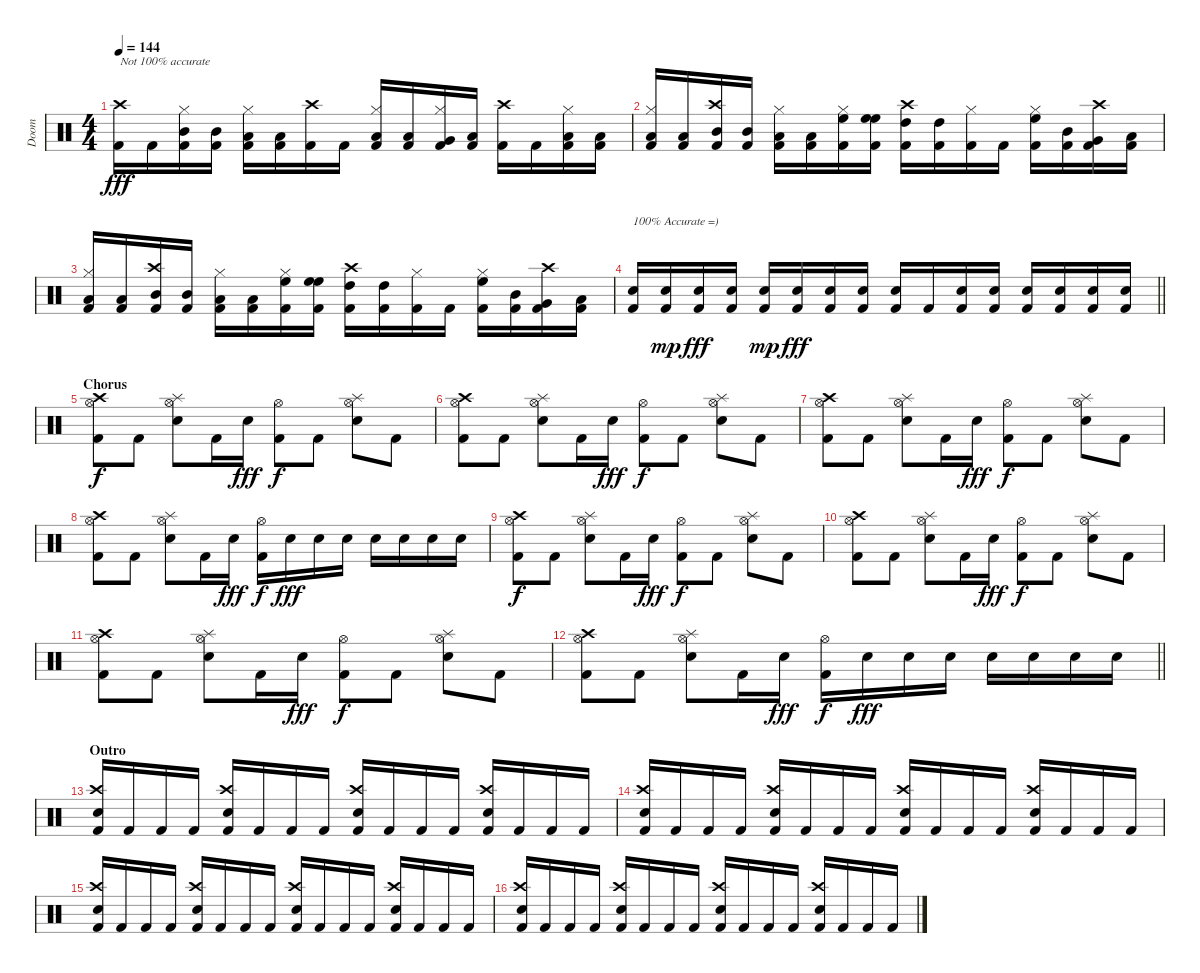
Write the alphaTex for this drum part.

\track ("Doom" "Doom") {instrument percussion}
\staff {score}
\articulation defaults
\ts (4 4)
\tempo 144
\clef neutral
\ks c
("Kick (hit) 2" "Crash high (hit)").16{txt "Not 100% accurate" dy fff} "Kick (hit) 2".16 ("Hi-Hat (closed)" "Kick (hit) 2" "Mid Tom (hit)").16 ("Mid Tom (hit)" "Kick (hit) 2").16 ("Kick (hit) 2" "Hi-Hat (closed)" "Low Tom (hit)").16 ("Kick (hit) 2" "Low Tom (hit)").16 ("Crash high (hit)" "Kick (hit) 2").16 "Kick (hit) 2".16 ("Kick (hit) 2" "Hi-Hat (closed)" "Low Tom (hit)").16 ("Kick (hit) 2" "Low Tom (hit)").16 ("Hi-Hat (closed)" "Kick (hit) 2" "Very Low Tom (hit)").16 ("Low Floor Tom (hit)" "Kick (hit) 2").16 ("Kick (hit) 2" "Crash high (hit)").16 "Kick (hit) 2".16 ("Hi-Hat (closed)" "Kick (hit) 2" "Low Floor Tom (hit)").16 ("Low Floor Tom (hit)" "Kick (hit) 2").16 |
("Kick (hit) 2" "Hi-Hat (closed)" "Low Floor Tom (hit)").16 ("Kick (hit) 2" "Low Floor Tom (hit)").16 ("Crash high (hit)" "Kick (hit) 2" "Mid Tom (hit)").16 ("Mid Tom (hit)" "Kick (hit) 2").16 ("Kick (hit) 2" "Hi-Hat (closed)" "Low Tom (hit)").16 ("Kick (hit) 2" "Low Tom (hit)").16 ("Hi-Hat (closed)" "Kick (hit) 2" "High Floor Tom (hit)").16 ("High Floor Tom (hit)" "High Floor Tom (hit)" "Kick (hit) 2").16 ("Kick (hit) 2" "Crash high (hit)" "High Tom (hit)").16 ("Kick (hit) 2" "High Tom (hit)").16 ("Hi-Hat (closed)" "Kick (hit) 2").16 "Kick (hit) 2".16 ("Kick (hit) 2" "Hi-Hat (closed)" "High Floor Tom (hit)").16 ("Kick (hit) 2" "Mid Tom (hit)").16 ("Crash high (hit)" "Kick (hit) 2" "Very Low Tom (hit)").16 ("Low Floor Tom (hit)" "Kick (hit) 2").16 |
("Kick (hit) 2" "Hi-Hat (closed)" "Low Floor Tom (hit)").16 ("Kick (hit) 2" "Low Floor Tom (hit)").16 ("Crash high (hit)" "Kick (hit) 2" "Mid Tom (hit)").16 ("Mid Tom (hit)" "Kick (hit) 2").16 ("Kick (hit) 2" "Hi-Hat (closed)" "Low Tom (hit)").16 ("Kick (hit) 2" "Low Tom (hit)").16 ("Hi-Hat (closed)" "Kick (hit) 2" "High Floor Tom (hit)").16 ("High Floor Tom (hit)" "High Floor Tom (hit)" "Kick (hit) 2").16 ("Kick (hit) 2" "Crash high (hit)" "High Tom (hit)").16 ("Kick (hit) 2" "High Tom (hit)").16 ("Hi-Hat (closed)" "Kick (hit) 2").16 "Kick (hit) 2".16 ("Kick (hit) 2" "Hi-Hat (closed)" "High Floor Tom (hit)").16 ("Kick (hit) 2" "Mid Tom (hit)").16 ("Crash high (hit)" "Kick (hit) 2" "Very Low Tom (hit)").16 ("Low Floor Tom (hit)" "Kick (hit) 2").16 |
\barLineRight lightlight
("Kick (hit) 2" "Electric Snare (hit)").16{txt "100% Accurate =)"} ("Kick (hit) 2" "Electric Snare (hit)").16{dy mp} ("Electric Snare (hit)" "Kick (hit) 2").16{dy fff} ("Electric Snare (hit)" "Kick (hit) 2").16 ("Kick (hit) 2" "Electric Snare (hit)").16{dy mp} ("Kick (hit) 2" "Electric Snare (hit)").16{dy fff} ("Electric Snare (hit)" "Kick (hit) 2").16 ("Electric Snare (hit)" "Kick (hit) 2").16 ("Kick (hit) 2" "Electric Snare (hit)").16 "Kick (hit) 2".16 ("Electric Snare (hit)" "Kick (hit) 2").16 ("Electric Snare (hit)" "Kick (hit) 2").16 ("Kick (hit) 2" "Electric Snare (hit)").16 ("Kick (hit) 2" "Electric Snare (hit)").16 ("Electric Snare (hit)" "Kick (hit) 2").16 ("Electric Snare (hit)" "Kick (hit) 2").16 |
\section ("" "Chorus")
("Kick (hit) 2" "Hi-Hat (open)" "Crash high (hit)").8{dy f} "Kick (hit) 2".8 ("Snare (hit) 2" "Hi-Hat (open)" "Splash (hit)").8 "Kick (hit) 2".16 "Snare (hit) 2".16{dy fff} ("Kick (hit) 2" "Hi-Hat (open)").8{dy f} "Kick (hit) 2".8 ("Snare (hit) 2" "Hi-Hat (open)" "Splash (hit)").8 "Kick (hit) 2".8 |
("Kick (hit) 2" "Hi-Hat (open)" "Crash high (hit)").8 "Kick (hit) 2".8 ("Snare (hit) 2" "Hi-Hat (open)" "Splash (hit)").8 "Kick (hit) 2".16 "Snare (hit) 2".16{dy fff} ("Kick (hit) 2" "Hi-Hat (open)").8{dy f} "Kick (hit) 2".8 ("Snare (hit) 2" "Hi-Hat (open)" "Splash (hit)").8 "Kick (hit) 2".8 |
("Kick (hit) 2" "Hi-Hat (open)" "Crash high (hit)").8 "Kick (hit) 2".8 ("Snare (hit) 2" "Hi-Hat (open)" "Splash (hit)").8 "Kick (hit) 2".16 "Snare (hit) 2".16{dy fff} ("Kick (hit) 2" "Hi-Hat (open)").8{dy f} "Kick (hit) 2".8 ("Snare (hit) 2" "Hi-Hat (open)" "Splash (hit)").8 "Kick (hit) 2".8 |
("Kick (hit) 2" "Hi-Hat (open)" "Crash high (hit)").8 "Kick (hit) 2".8 ("Snare (hit) 2" "Hi-Hat (open)" "Splash (hit)").8 "Kick (hit) 2".16 "Snare (hit) 2".16{dy fff} ("Kick (hit) 2" "Hi-Hat (open)").16{dy f} "Snare (hit) 2".16{dy fff} "Snare (hit) 2".16 "Snare (hit) 2".16 "Snare (hit) 2".16 "Snare (hit) 2".16 "Snare (hit) 2".16 "Snare (hit) 2".16 |
("Kick (hit) 2" "Hi-Hat (open)" "Crash high (hit)").8{dy f} "Kick (hit) 2".8 ("Snare (hit) 2" "Hi-Hat (open)" "Splash (hit)").8 "Kick (hit) 2".16 "Snare (hit) 2".16{dy fff} ("Kick (hit) 2" "Hi-Hat (open)").8{dy f} "Kick (hit) 2".8 ("Snare (hit) 2" "Hi-Hat (open)" "Splash (hit)").8 "Kick (hit) 2".8 |
("Kick (hit) 2" "Hi-Hat (open)" "Crash high (hit)").8 "Kick (hit) 2".8 ("Snare (hit) 2" "Hi-Hat (open)" "Splash (hit)").8 "Kick (hit) 2".16 "Snare (hit) 2".16{dy fff} ("Kick (hit) 2" "Hi-Hat (open)").8{dy f} "Kick (hit) 2".8 ("Snare (hit) 2" "Hi-Hat (open)" "Splash (hit)").8 "Kick (hit) 2".8 |
("Kick (hit) 2" "Hi-Hat (open)" "Crash high (hit)").8 "Kick (hit) 2".8 ("Snare (hit) 2" "Hi-Hat (open)" "Splash (hit)").8 "Kick (hit) 2".16 "Snare (hit) 2".16{dy fff} ("Kick (hit) 2" "Hi-Hat (open)").8{dy f} "Kick (hit) 2".8 ("Snare (hit) 2" "Hi-Hat (open)" "Splash (hit)").8 "Kick (hit) 2".8 |
\barLineRight lightlight
("Kick (hit) 2" "Hi-Hat (open)" "Crash high (hit)").8 "Kick (hit) 2".8 ("Snare (hit) 2" "Hi-Hat (open)" "Splash (hit)").8 "Kick (hit) 2".16 "Snare (hit) 2".16{dy fff} ("Kick (hit) 2" "Hi-Hat (open)").16{dy f} "Snare (hit) 2".16{dy fff} "Snare (hit) 2".16 "Snare (hit) 2".16 "Snare (hit) 2".16 "Snare (hit) 2".16 "Snare (hit) 2".16 "Snare (hit) 2".16 |
\section ("" "Outro")
("Crash high (hit)" "Snare (hit) 2" "Kick (hit) 2").16 "Kick (hit) 2".16 "Kick (hit) 2".16 "Kick (hit) 2".16 ("Crash high (hit)" "Snare (hit) 2" "Kick (hit) 2").16 "Kick (hit) 2".16 "Kick (hit) 2".16 "Kick (hit) 2".16 ("Crash high (hit)" "Snare (hit) 2" "Kick (hit) 2").16 "Kick (hit) 2".16 "Kick (hit) 2".16 "Kick (hit) 2".16 ("Crash high (hit)" "Snare (hit) 2" "Kick (hit) 2").16 "Kick (hit) 2".16 "Kick (hit) 2".16 "Kick (hit) 2".16 |
("Crash high (hit)" "Snare (hit) 2" "Kick (hit) 2").16 "Kick (hit) 2".16 "Kick (hit) 2".16 "Kick (hit) 2".16 ("Crash high (hit)" "Snare (hit) 2" "Kick (hit) 2").16 "Kick (hit) 2".16 "Kick (hit) 2".16 "Kick (hit) 2".16 ("Crash high (hit)" "Snare (hit) 2" "Kick (hit) 2").16 "Kick (hit) 2".16 "Kick (hit) 2".16 "Kick (hit) 2".16 ("Crash high (hit)" "Snare (hit) 2" "Kick (hit) 2").16 "Kick (hit) 2".16 "Kick (hit) 2".16 "Kick (hit) 2".16 |
("Crash high (hit)" "Snare (hit) 2" "Kick (hit) 2").16 "Kick (hit) 2".16 "Kick (hit) 2".16 "Kick (hit) 2".16 ("Crash high (hit)" "Snare (hit) 2" "Kick (hit) 2").16 "Kick (hit) 2".16 "Kick (hit) 2".16 "Kick (hit) 2".16 ("Crash high (hit)" "Snare (hit) 2" "Kick (hit) 2").16 "Kick (hit) 2".16 "Kick (hit) 2".16 "Kick (hit) 2".16 ("Crash high (hit)" "Snare (hit) 2" "Kick (hit) 2").16 "Kick (hit) 2".16 "Kick (hit) 2".16 "Kick (hit) 2".16 |
("Crash high (hit)" "Snare (hit) 2" "Kick (hit) 2").16 "Kick (hit) 2".16 "Kick (hit) 2".16 "Kick (hit) 2".16 ("Crash high (hit)" "Snare (hit) 2" "Kick (hit) 2").16 "Kick (hit) 2".16 "Kick (hit) 2".16 "Kick (hit) 2".16 ("Crash high (hit)" "Snare (hit) 2" "Kick (hit) 2").16 "Kick (hit) 2".16 "Kick (hit) 2".16 "Kick (hit) 2".16 ("Crash high (hit)" "Snare (hit) 2" "Kick (hit) 2").16 "Kick (hit) 2".16 "Kick (hit) 2".16 "Kick (hit) 2".16
